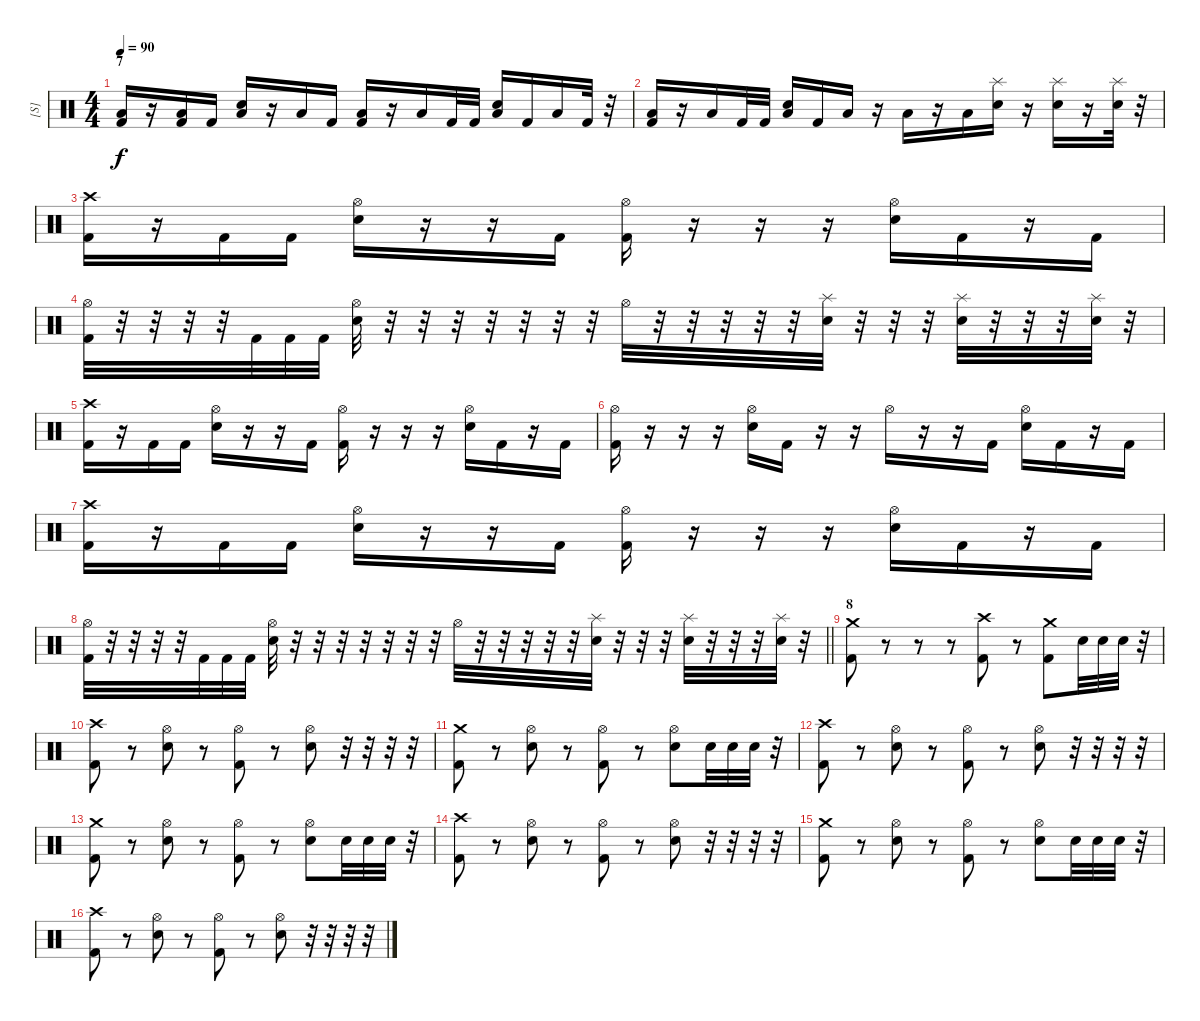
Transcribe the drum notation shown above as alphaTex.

\track ("[S]" "[S]") {instrument percussion}
\staff {score}
\articulation defaults
\ts (4 4)
\section ("" "7")
\tempo 90
\clef neutral
\ks c
("Low Floor Tom (hit)" "Kick (hit) 2").16{dy f} r.16 ("Low Floor Tom (hit)" "Kick (hit) 2").16 "Kick (hit) 2".16 ("Low Floor Tom (hit)" "Electric Snare (hit)").16 r.16 "Low Floor Tom (hit)".16 "Kick (hit) 2".16 ("Low Floor Tom (hit)" "Kick (hit) 2").16 r.16 "Low Floor Tom (hit)".16 "Kick (hit) 2".32 "Kick (hit) 2".32 ("Low Floor Tom (hit)" "Electric Snare (hit)").16 "Kick (hit) 2".16 "Low Floor Tom (hit)".16 "Kick (hit) 2".32 r.32 |
("Low Floor Tom (hit)" "Kick (hit) 2").16 r.16 "Low Floor Tom (hit)".16 "Kick (hit) 2".32 "Kick (hit) 2".32 ("Low Floor Tom (hit)" "Electric Snare (hit)").16 "Kick (hit) 2".16 "Low Floor Tom (hit)".16 r.16 "Low Floor Tom (hit)".16 r.16 "Low Floor Tom (hit)".16 ("Splash (hit)" "Electric Snare (hit)").16 r.16 ("Splash (hit)" "Electric Snare (hit)").16 r.16 ("Splash (hit)" "Electric Snare (hit)").32 r.32 |
("Crash high (hit)" "Kick (hit) 2").16 r.16 "Kick (hit) 2".16 "Kick (hit) 2".16 ("Hi-Hat (open)" "Electric Snare (hit)").16 r.16 r.16 "Kick (hit) 2".16 ("Hi-Hat (open)" "Kick (hit) 2").16 r.16 r.16 r.16 ("Hi-Hat (open)" "Electric Snare (hit)").16 "Kick (hit) 2".16 r.16 "Kick (hit) 2".16 |
("Hi-Hat (open)" "Kick (hit) 2").32 r.32 r.32 r.32 r.32 "Kick (hit) 2".32 "Kick (hit) 2".32 "Kick (hit) 2".32 ("Hi-Hat (open)" "Electric Snare (hit)").32 r.32 r.32 r.32 r.32 r.32 r.32 r.32 "Hi-Hat (open)".32 r.32 r.32 r.32 r.32 r.32 ("Splash (hit)" "Electric Snare (hit)").32 r.32 r.32 r.32 ("Splash (hit)" "Electric Snare (hit)").32 r.32 r.32 r.32 ("Splash (hit)" "Electric Snare (hit)").32 r.32 |
("Crash high (hit)" "Kick (hit) 2").16 r.16 "Kick (hit) 2".16 "Kick (hit) 2".16 ("Hi-Hat (open)" "Electric Snare (hit)").16 r.16 r.16 "Kick (hit) 2".16 ("Hi-Hat (open)" "Kick (hit) 2").16 r.16 r.16 r.16 ("Hi-Hat (open)" "Electric Snare (hit)").16 "Kick (hit) 2".16 r.16 "Kick (hit) 2".16 |
("Hi-Hat (open)" "Kick (hit) 2").16 r.16 r.16 r.16 ("Hi-Hat (open)" "Electric Snare (hit)").16 "Kick (hit) 2".16 r.16 r.16 "Hi-Hat (open)".16 r.16 r.16 "Kick (hit) 2".16 ("Hi-Hat (open)" "Electric Snare (hit)").16 "Kick (hit) 2".16 r.16 "Kick (hit) 2".16 |
("Crash high (hit)" "Kick (hit) 2").16 r.16 "Kick (hit) 2".16 "Kick (hit) 2".16 ("Hi-Hat (open)" "Electric Snare (hit)").16 r.16 r.16 "Kick (hit) 2".16 ("Hi-Hat (open)" "Kick (hit) 2").16 r.16 r.16 r.16 ("Hi-Hat (open)" "Electric Snare (hit)").16 "Kick (hit) 2".16 r.16 "Kick (hit) 2".16 |
\barLineRight lightlight
("Hi-Hat (open)" "Kick (hit) 2").32 r.32 r.32 r.32 r.32 "Kick (hit) 2".32 "Kick (hit) 2".32 "Kick (hit) 2".32 ("Hi-Hat (open)" "Electric Snare (hit)").32 r.32 r.32 r.32 r.32 r.32 r.32 r.32 "Hi-Hat (open)".32 r.32 r.32 r.32 r.32 r.32 ("Splash (hit)" "Electric Snare (hit)").32 r.32 r.32 r.32 ("Splash (hit)" "Electric Snare (hit)").32 r.32 r.32 r.32 ("Splash (hit)" "Electric Snare (hit)").32 r.32 |
\section ("" "8")
("Crash medium (hit)" "Kick (hit) 2").8 r.8 r.8 r.8 ("Crash high (hit)" "Kick (hit) 2").8 r.8 ("Crash medium (hit)" "Kick (hit) 2").8 "Electric Snare (hit)".32 "Electric Snare (hit)".32 "Electric Snare (hit)".32 r.32 |
("Crash high (hit)" "Kick (hit) 2").8 r.8 ("Hi-Hat (open)" "Electric Snare (hit)").8 r.8 ("Hi-Hat (open)" "Kick (hit) 2").8 r.8 ("Hi-Hat (open)" "Electric Snare (hit)").8 r.32 r.32 r.32 r.32 |
("Crash medium (hit)" "Kick (hit) 2").8 r.8 ("Hi-Hat (open)" "Electric Snare (hit)").8 r.8 ("Hi-Hat (open)" "Kick (hit) 2").8 r.8 ("Hi-Hat (open)" "Electric Snare (hit)").8 "Electric Snare (hit)".32 "Electric Snare (hit)".32 "Electric Snare (hit)".32 r.32 |
("Crash high (hit)" "Kick (hit) 2").8 r.8 ("Hi-Hat (open)" "Electric Snare (hit)").8 r.8 ("Hi-Hat (open)" "Kick (hit) 2").8 r.8 ("Hi-Hat (open)" "Electric Snare (hit)").8 r.32 r.32 r.32 r.32 |
("Crash medium (hit)" "Kick (hit) 2").8 r.8 ("Hi-Hat (open)" "Electric Snare (hit)").8 r.8 ("Hi-Hat (open)" "Kick (hit) 2").8 r.8 ("Hi-Hat (open)" "Electric Snare (hit)").8 "Electric Snare (hit)".32 "Electric Snare (hit)".32 "Electric Snare (hit)".32 r.32 |
("Crash high (hit)" "Kick (hit) 2").8 r.8 ("Hi-Hat (open)" "Electric Snare (hit)").8 r.8 ("Hi-Hat (open)" "Kick (hit) 2").8 r.8 ("Hi-Hat (open)" "Electric Snare (hit)").8 r.32 r.32 r.32 r.32 |
("Crash medium (hit)" "Kick (hit) 2").8 r.8 ("Hi-Hat (open)" "Electric Snare (hit)").8 r.8 ("Hi-Hat (open)" "Kick (hit) 2").8 r.8 ("Hi-Hat (open)" "Electric Snare (hit)").8 "Electric Snare (hit)".32 "Electric Snare (hit)".32 "Electric Snare (hit)".32 r.32 |
("Crash high (hit)" "Kick (hit) 2").8 r.8 ("Hi-Hat (open)" "Electric Snare (hit)").8 r.8 ("Hi-Hat (open)" "Kick (hit) 2").8 r.8 ("Hi-Hat (open)" "Electric Snare (hit)").8 r.32 r.32 r.32 r.32
